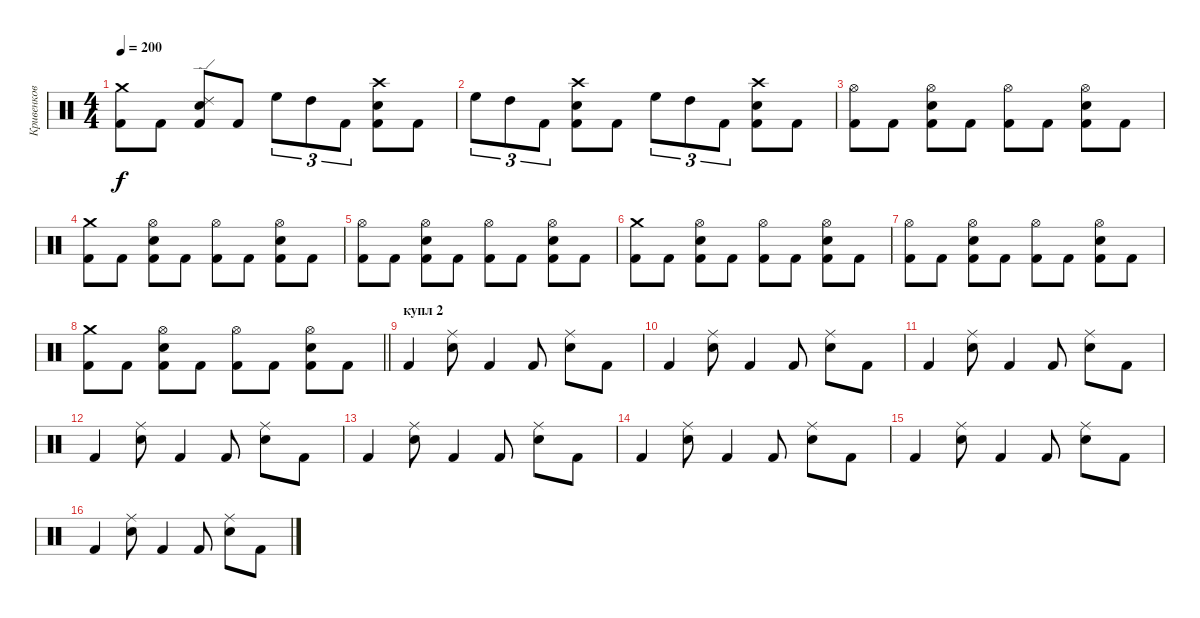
\track ("Кривенков" "Кривенков") {instrument percussion}
\staff {score}
\articulation defaults
\ts (4 4)
\tempo 200
\clef neutral
\ks c
("Crash medium (hit)" "Kick (hit) 2").8{dy f} "Kick (hit) 2".8 ("Ride (edge) 2" "Electric Snare (hit)" "Kick (hit) 2").8 "Kick (hit) 2".8 "High Floor Tom (hit)".8{tu (3 2)} "High Tom (hit)".8{tu (3 2)} "Kick (hit) 2".8{tu (3 2)} ("Crash high (hit)" "Electric Snare (hit)" "Kick (hit) 2").8 "Kick (hit) 2".8 |
"High Floor Tom (hit)".8{tu (3 2)} "High Tom (hit)".8{tu (3 2)} "Kick (hit) 2".8{tu (3 2)} ("Crash high (hit)" "Electric Snare (hit)" "Kick (hit) 2").8 "Kick (hit) 2".8 "High Floor Tom (hit)".8{tu (3 2)} "High Tom (hit)".8{tu (3 2)} "Kick (hit) 2".8{tu (3 2)} ("Crash high (hit)" "Electric Snare (hit)" "Kick (hit) 2").8 "Kick (hit) 2".8 |
("Hi-Hat (open)" "Kick (hit) 2").8 "Kick (hit) 2".8 ("Hi-Hat (open)" "Electric Snare (hit)" "Kick (hit) 2").8 "Kick (hit) 2".8 ("Hi-Hat (open)" "Kick (hit) 2").8 "Kick (hit) 2".8 ("Hi-Hat (open)" "Electric Snare (hit)" "Kick (hit) 2").8 "Kick (hit) 2".8 |
("Crash medium (hit)" "Kick (hit) 2").8 "Kick (hit) 2".8 ("Hi-Hat (open)" "Electric Snare (hit)" "Kick (hit) 2").8 "Kick (hit) 2".8 ("Hi-Hat (open)" "Kick (hit) 2").8 "Kick (hit) 2".8 ("Hi-Hat (open)" "Electric Snare (hit)" "Kick (hit) 2").8 "Kick (hit) 2".8 |
("Hi-Hat (open)" "Kick (hit) 2").8 "Kick (hit) 2".8 ("Hi-Hat (open)" "Electric Snare (hit)" "Kick (hit) 2").8 "Kick (hit) 2".8 ("Hi-Hat (open)" "Kick (hit) 2").8 "Kick (hit) 2".8 ("Hi-Hat (open)" "Electric Snare (hit)" "Kick (hit) 2").8 "Kick (hit) 2".8 |
("Crash medium (hit)" "Kick (hit) 2").8 "Kick (hit) 2".8 ("Hi-Hat (open)" "Electric Snare (hit)" "Kick (hit) 2").8 "Kick (hit) 2".8 ("Hi-Hat (open)" "Kick (hit) 2").8 "Kick (hit) 2".8 ("Hi-Hat (open)" "Electric Snare (hit)" "Kick (hit) 2").8 "Kick (hit) 2".8 |
("Hi-Hat (open)" "Kick (hit) 2").8 "Kick (hit) 2".8 ("Hi-Hat (open)" "Electric Snare (hit)" "Kick (hit) 2").8 "Kick (hit) 2".8 ("Hi-Hat (open)" "Kick (hit) 2").8 "Kick (hit) 2".8 ("Hi-Hat (open)" "Electric Snare (hit)" "Kick (hit) 2").8 "Kick (hit) 2".8 |
\barLineRight lightlight
("Crash medium (hit)" "Kick (hit) 2").8 "Kick (hit) 2".8 ("Hi-Hat (open)" "Electric Snare (hit)" "Kick (hit) 2").8 "Kick (hit) 2".8 ("Hi-Hat (open)" "Kick (hit) 2").8 "Kick (hit) 2".8 ("Hi-Hat (open)" "Electric Snare (hit)" "Kick (hit) 2").8 "Kick (hit) 2".8 |
\section ("" "купл 2")
"Kick (hit) 2".4 ("Ride (middle)" "Electric Snare (hit)").8 "Kick (hit) 2".4 "Kick (hit) 2".8 ("Ride (middle)" "Electric Snare (hit)").8 "Kick (hit) 2".8 |
"Kick (hit) 2".4 ("Ride (middle)" "Electric Snare (hit)").8 "Kick (hit) 2".4 "Kick (hit) 2".8 ("Ride (middle)" "Electric Snare (hit)").8 "Kick (hit) 2".8 |
"Kick (hit) 2".4 ("Ride (middle)" "Electric Snare (hit)").8 "Kick (hit) 2".4 "Kick (hit) 2".8 ("Ride (middle)" "Electric Snare (hit)").8 "Kick (hit) 2".8 |
"Kick (hit) 2".4 ("Ride (middle)" "Electric Snare (hit)").8 "Kick (hit) 2".4 "Kick (hit) 2".8 ("Ride (middle)" "Electric Snare (hit)").8 "Kick (hit) 2".8 |
"Kick (hit) 2".4 ("Ride (middle)" "Electric Snare (hit)").8 "Kick (hit) 2".4 "Kick (hit) 2".8 ("Ride (middle)" "Electric Snare (hit)").8 "Kick (hit) 2".8 |
"Kick (hit) 2".4 ("Ride (middle)" "Electric Snare (hit)").8 "Kick (hit) 2".4 "Kick (hit) 2".8 ("Ride (middle)" "Electric Snare (hit)").8 "Kick (hit) 2".8 |
"Kick (hit) 2".4 ("Ride (middle)" "Electric Snare (hit)").8 "Kick (hit) 2".4 "Kick (hit) 2".8 ("Ride (middle)" "Electric Snare (hit)").8 "Kick (hit) 2".8 |
"Kick (hit) 2".4 ("Ride (middle)" "Electric Snare (hit)").8 "Kick (hit) 2".4 "Kick (hit) 2".8 ("Ride (middle)" "Electric Snare (hit)").8 "Kick (hit) 2".8
